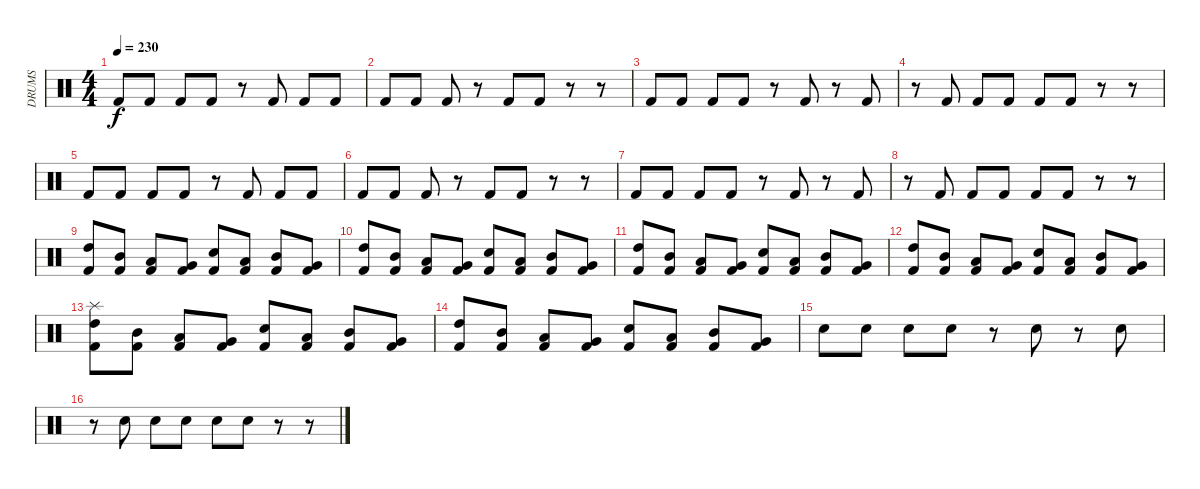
\track ("DRUMS" "DRUMS") {instrument percussion}
\staff {score}
\articulation defaults
\ts (4 4)
\tempo 230
\clef neutral
\ks c "Kick (hit) 2".8{dy f} "Kick (hit) 2".8 "Kick (hit) 2".8 "Kick (hit) 2".8
r.8 "Kick (hit) 2".8 "Kick (hit) 2".8 "Kick (hit) 2".8 |
"Kick (hit) 2".8 "Kick (hit) 2".8 "Kick (hit) 2".8 r.8 "Kick (hit) 2".8 "Kick (hit) 2".8 r.8 r.8 |
"Kick (hit) 2".8 "Kick (hit) 2".8 "Kick (hit) 2".8 "Kick (hit) 2".8 r.8 "Kick (hit) 2".8 r.8 "Kick (hit) 2".8 |
r.8 "Kick (hit) 2".8 "Kick (hit) 2".8 "Kick (hit) 2".8 "Kick (hit) 2".8 "Kick (hit) 2".8 r.8 r.8 |
"Kick (hit) 2".8 "Kick (hit) 2".8 "Kick (hit) 2".8 "Kick (hit) 2".8 r.8 "Kick (hit) 2".8 "Kick (hit) 2".8 "Kick (hit) 2".8 |
"Kick (hit) 2".8 "Kick (hit) 2".8 "Kick (hit) 2".8 r.8 "Kick (hit) 2".8 "Kick (hit) 2".8 r.8 r.8 |
"Kick (hit) 2".8 "Kick (hit) 2".8 "Kick (hit) 2".8 "Kick (hit) 2".8 r.8 "Kick (hit) 2".8 r.8 "Kick (hit) 2".8 |
r.8 "Kick (hit) 2".8 "Kick (hit) 2".8 "Kick (hit) 2".8 "Kick (hit) 2".8 "Kick (hit) 2".8 r.8 r.8 |
("High Tom (hit)" "Kick (hit) 2").8 ("Mid Tom (hit)" "Kick (hit) 2").8 ("Low Tom (hit)" "Kick (hit) 2").8 ("Very Low Tom (hit)" "Kick (hit) 2").8 ("Snare (hit) 2" "Kick (hit) 2").8 ("Low Tom (hit)" "Kick (hit) 2").8 ("Mid Tom (hit)" "Kick (hit) 2").8 ("Very Low Tom (hit)" "Kick (hit) 2").8 |
("High Tom (hit)" "Kick (hit) 2").8 ("Mid Tom (hit)" "Kick (hit) 2").8 ("Low Tom (hit)" "Kick (hit) 2").8 ("Very Low Tom (hit)" "Kick (hit) 2").8 ("Snare (hit) 2" "Kick (hit) 2").8 ("Low Tom (hit)" "Kick (hit) 2").8 ("Mid Tom (hit)" "Kick (hit) 2").8 ("Very Low Tom (hit)" "Kick (hit) 2").8 |
("High Tom (hit)" "Kick (hit) 2").8 ("Mid Tom (hit)" "Kick (hit) 2").8 ("Low Tom (hit)" "Kick (hit) 2").8 ("Very Low Tom (hit)" "Kick (hit) 2").8 ("Snare (hit) 2" "Kick (hit) 2").8 ("Low Tom (hit)" "Kick (hit) 2").8 ("Mid Tom (hit)" "Kick (hit) 2").8 ("Very Low Tom (hit)" "Kick (hit) 2").8 |
("High Tom (hit)" "Kick (hit) 2").8 ("Mid Tom (hit)" "Kick (hit) 2").8 ("Low Tom (hit)" "Kick (hit) 2").8 ("Very Low Tom (hit)" "Kick (hit) 2").8 ("Snare (hit) 2" "Kick (hit) 2").8 ("Low Tom (hit)" "Kick (hit) 2").8 ("Mid Tom (hit)" "Kick (hit) 2").8 ("Very Low Tom (hit)" "Kick (hit) 2").8 |
("Splash (hit)" "High Tom (hit)" "Kick (hit) 2").8 ("Mid Tom (hit)" "Kick (hit) 2").8 ("Low Tom (hit)" "Kick (hit) 2").8 ("Very Low Tom (hit)" "Kick (hit) 2").8 ("Snare (hit) 2" "Kick (hit) 2").8 ("Low Tom (hit)" "Kick (hit) 2").8 ("Mid Tom (hit)" "Kick (hit) 2").8 ("Very Low Tom (hit)" "Kick (hit) 2").8 |
("High Tom (hit)" "Kick (hit) 2").8 ("Mid Tom (hit)" "Kick (hit) 2").8 ("Low Tom (hit)" "Kick (hit) 2").8 ("Very Low Tom (hit)" "Kick (hit) 2").8 ("Snare (hit) 2" "Kick (hit) 2").8 ("Low Tom (hit)" "Kick (hit) 2").8 ("Mid Tom (hit)" "Kick (hit) 2").8 ("Very Low Tom (hit)" "Kick (hit) 2").8 |
"Snare (hit) 2".8 "Snare (hit) 2".8 "Snare (hit) 2".8 "Snare (hit) 2".8 r.8 "Snare (hit) 2".8 r.8 "Snare (hit) 2".8 |
r.8 "Snare (hit) 2".8 "Snare (hit) 2".8 "Snare (hit) 2".8 "Snare (hit) 2".8 "Snare (hit) 2".8 r.8 r.8
